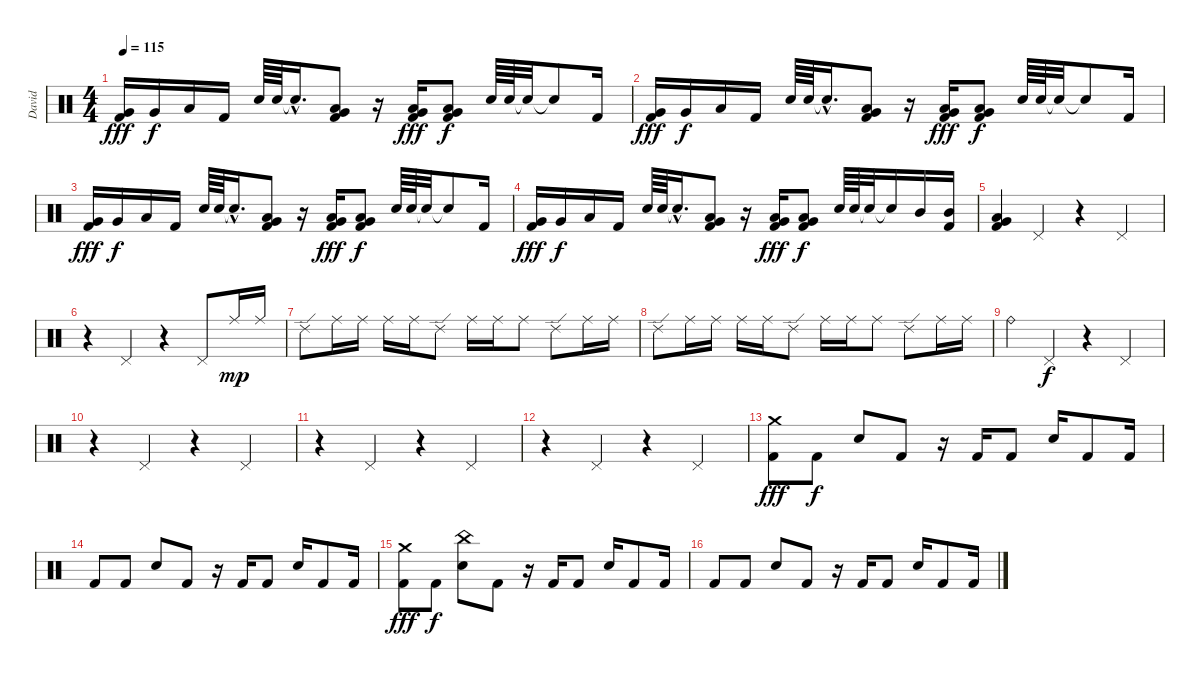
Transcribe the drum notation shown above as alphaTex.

\track ("David" "David") {instrument percussion}
\staff {score}
\articulation defaults
\ts (4 4)
\tempo 115
\clef neutral
\ks c
("Very Low Tom (hit)" "Kick (hit) 2").16{dy fff} "Very Low Tom (hit)".16{dy f} "Low Floor Tom (hit)".16 "Kick (hit) 2".16 "Snare (hit) 2".64 "Snare (hit) 2".64 "Snare (hit)"{hac t}.16{d} ("Low Tom (hit)" "Very Low Tom (hit)" "Kick (hit) 2").8 r.16 ("Very Low Tom (hit)" "Low Floor Tom (hit)" "Kick (hit) 2").16{dy fff} ("Very Low Tom (hit)" "Low Floor Tom (hit)" "Kick (hit) 2").8{dy f} "Snare (hit) 2".64 "Snare (hit) 2".64 "Snare (hit)"{t}.32 "Snare (hit)"{t}.8 "Kick (hit) 2".16 |
("Very Low Tom (hit)" "Kick (hit) 2").16{dy fff} "Very Low Tom (hit)".16{dy f} "Low Floor Tom (hit)".16 "Kick (hit) 2".16 "Snare (hit) 2".64 "Snare (hit) 2".64 "Snare (hit)"{hac t}.16{d} ("Low Tom (hit)" "Very Low Tom (hit)" "Kick (hit) 2").8 r.16 ("Very Low Tom (hit)" "Low Floor Tom (hit)" "Kick (hit) 2").16{dy fff} ("Very Low Tom (hit)" "Low Floor Tom (hit)" "Kick (hit) 2").8{dy f} "Snare (hit) 2".64 "Snare (hit) 2".64 "Snare (hit)"{t}.32 "Snare (hit)"{t}.8 "Kick (hit) 2".16 |
("Very Low Tom (hit)" "Kick (hit) 2").16{dy fff} "Very Low Tom (hit)".16{dy f} "Low Floor Tom (hit)".16 "Kick (hit) 2".16 "Snare (hit) 2".64 "Snare (hit) 2".64 "Snare (hit)"{hac t}.16{d} ("Low Tom (hit)" "Very Low Tom (hit)" "Kick (hit) 2").8 r.16 ("Very Low Tom (hit)" "Low Floor Tom (hit)" "Kick (hit) 2").16{dy fff} ("Very Low Tom (hit)" "Low Floor Tom (hit)" "Kick (hit) 2").8{dy f} "Snare (hit) 2".64 "Snare (hit) 2".64 "Snare (hit)"{t}.32 "Snare (hit)"{t}.8 "Kick (hit) 2".16 |
("Very Low Tom (hit)" "Kick (hit) 2").16{dy fff} "Very Low Tom (hit)".16{dy f} "Low Floor Tom (hit)".16 "Kick (hit) 2".16 "Snare (hit) 2".64 "Snare (hit) 2".64 "Snare (hit)"{hac t}.16{d} ("Low Tom (hit)" "Very Low Tom (hit)" "Kick (hit) 2").8 r.16 ("Very Low Tom (hit)" "Low Floor Tom (hit)" "Kick (hit) 2").16{dy fff} ("Very Low Tom (hit)" "Low Floor Tom (hit)" "Kick (hit) 2").8{dy f} "Snare (hit) 2".64 "Snare (hit) 2".64 "Snare (hit)"{t}.32 "Snare (hit)"{t}.16 "Mid Tom (hit)".16 ("Mid Tom (hit)" "Kick (hit) 2").16 |
("Very Low Tom (hit)" "Low Floor Tom (hit)" "Kick (hit) 2").4 "Pedal Hi-Hat (hit)".4 r.4 "Pedal Hi-Hat (hit)".4 |
r.4 "Pedal Hi-Hat (hit)".4 r.4 "Pedal Hi-Hat (hit)".8 "Ride (middle)".16{dy mp} "Ride (middle)".16 |
"Ride (edge) 2".8 "Ride (middle)".16 "Ride (middle)".16 "Ride (middle)".16 "Ride (middle)".16 "Ride (edge) 2".8 "Ride (middle)".16 "Ride (middle)".16 "Ride (middle)".8 "Ride (edge) 2".8 "Ride (middle)".16 "Ride (middle)".16 |
"Ride (edge) 2".8 "Ride (middle)".16 "Ride (middle)".16 "Ride (middle)".16 "Ride (middle)".16 "Ride (edge) 2".8 "Ride (middle)".16 "Ride (middle)".16 "Ride (middle)".8 "Ride (edge) 2".8 "Ride (middle)".16 "Ride (middle)".16 |
"Ride (bell)".4 "Pedal Hi-Hat (hit)".4{dy f} r.4 "Pedal Hi-Hat (hit)".4 |
r.4 "Pedal Hi-Hat (hit)".4 r.4 "Pedal Hi-Hat (hit)".4 |
r.4 "Pedal Hi-Hat (hit)".4 r.4 "Pedal Hi-Hat (hit)".4 |
r.4 "Pedal Hi-Hat (hit)".4 r.4 "Pedal Hi-Hat (hit)".4 |
("Crash medium (hit)" "Kick (hit) 2").8{dy fff} "Kick (hit) 2".8{dy f} "Snare (hit) 2".8 "Kick (hit) 2".8 r.16 "Kick (hit) 2".16 "Kick (hit) 2".8 "Snare (hit) 2".16 "Kick (hit) 2".8 "Kick (hit) 2".16 |
"Kick (hit) 2".8 "Kick (hit) 2".8 "Snare (hit) 2".8 "Kick (hit) 2".8 r.16 "Kick (hit) 2".16 "Kick (hit) 2".8 "Snare (hit) 2".16 "Kick (hit) 2".8 "Kick (hit) 2".16 |
("Crash medium (hit)" "Kick (hit) 2").8{dy fff} "Kick (hit) 2".8{dy f} ("China (hit)" "Snare (hit) 2").8 "Kick (hit) 2".8 r.16 "Kick (hit) 2".16 "Kick (hit) 2".8 "Snare (hit) 2".16 "Kick (hit) 2".8 "Kick (hit) 2".16 |
"Kick (hit) 2".8 "Kick (hit) 2".8 "Snare (hit) 2".8 "Kick (hit) 2".8 r.16 "Kick (hit) 2".16 "Kick (hit) 2".8 "Snare (hit) 2".16 "Kick (hit) 2".8 "Kick (hit) 2".16
